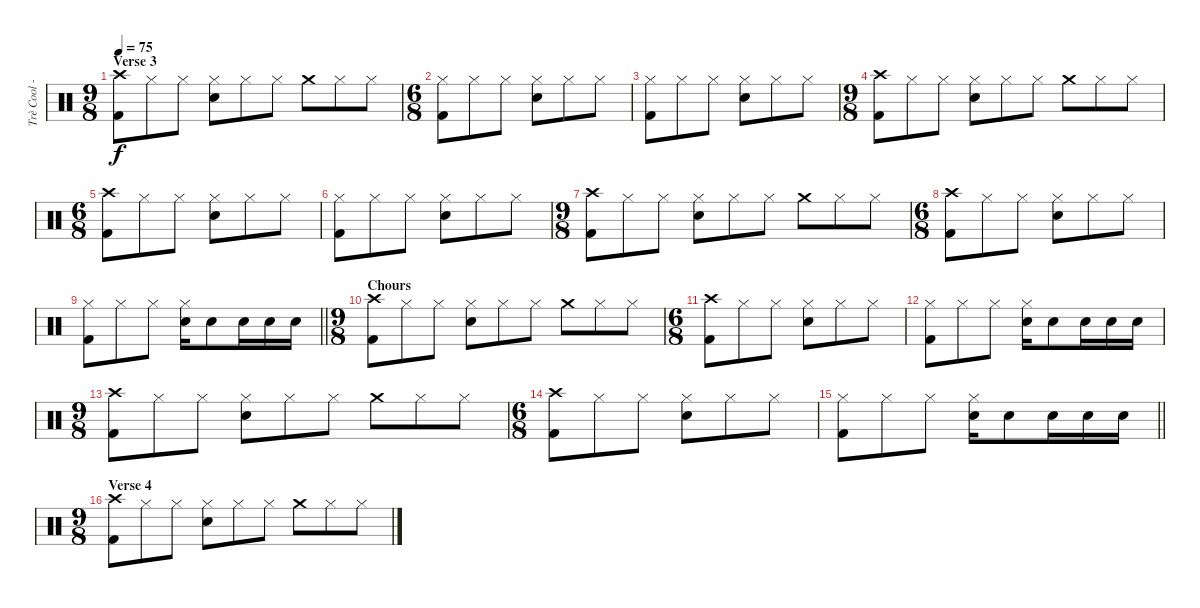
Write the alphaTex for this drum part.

\track ("Trè Cool - Drums" "Trè Cool -") {instrument percussion}
\staff {score}
\articulation defaults
\ts (9 8)
\section ("" "Verse 3")
\tempo 75
\clef neutral
\ks c
("Crash high (hit)" "Kick (hit) 2").8{dy f} "Hi-Hat (closed)".8 "Hi-Hat (closed)".8 ("Hi-Hat (closed)" "Electric Snare (hit)").8 "Hi-Hat (closed)".8 "Hi-Hat (closed)".8 "Crash medium (hit)".8 "Hi-Hat (closed)".8 "Hi-Hat (closed)".8 |
\ts (6 8)
("Hi-Hat (closed)" "Kick (hit) 2").8 "Hi-Hat (closed)".8 "Hi-Hat (closed)".8 ("Hi-Hat (closed)" "Electric Snare (hit)").8 "Hi-Hat (closed)".8 "Hi-Hat (closed)".8 |
("Hi-Hat (closed)" "Kick (hit) 2").8 "Hi-Hat (closed)".8 "Hi-Hat (closed)".8 ("Hi-Hat (closed)" "Electric Snare (hit)").8 "Hi-Hat (closed)".8 "Hi-Hat (closed)".8 |
\ts (9 8)
("Crash high (hit)" "Kick (hit) 2").8 "Hi-Hat (closed)".8 "Hi-Hat (closed)".8 ("Hi-Hat (closed)" "Electric Snare (hit)").8 "Hi-Hat (closed)".8 "Hi-Hat (closed)".8 "Crash medium (hit)".8 "Hi-Hat (closed)".8 "Hi-Hat (closed)".8 |
\ts (6 8)
("Crash high (hit)" "Kick (hit) 2").8 "Hi-Hat (closed)".8 "Hi-Hat (closed)".8 ("Hi-Hat (closed)" "Electric Snare (hit)").8 "Hi-Hat (closed)".8 "Hi-Hat (closed)".8 |
("Hi-Hat (closed)" "Kick (hit) 2").8 "Hi-Hat (closed)".8 "Hi-Hat (closed)".8 ("Hi-Hat (closed)" "Electric Snare (hit)").8 "Hi-Hat (closed)".8 "Hi-Hat (closed)".8 |
\ts (9 8)
("Crash high (hit)" "Kick (hit) 2").8 "Hi-Hat (closed)".8 "Hi-Hat (closed)".8 ("Hi-Hat (closed)" "Electric Snare (hit)").8 "Hi-Hat (closed)".8 "Hi-Hat (closed)".8 "Crash medium (hit)".8 "Hi-Hat (closed)".8 "Hi-Hat (closed)".8 |
\ts (6 8)
("Crash high (hit)" "Kick (hit) 2").8 "Hi-Hat (closed)".8 "Hi-Hat (closed)".8 ("Hi-Hat (closed)" "Electric Snare (hit)").8 "Hi-Hat (closed)".8 "Hi-Hat (closed)".8 |
\barLineRight lightlight
("Hi-Hat (closed)" "Kick (hit) 2").8 "Hi-Hat (closed)".8 "Hi-Hat (closed)".8 ("Hi-Hat (closed)" "Electric Snare (hit)").16 "Electric Snare (hit)".8 "Electric Snare (hit)".16 "Electric Snare (hit)".16 "Electric Snare (hit)".16 |
\ts (9 8)
\section ("" "Chours")
("Crash high (hit)" "Kick (hit) 2").8 "Hi-Hat (closed)".8 "Hi-Hat (closed)".8 ("Hi-Hat (closed)" "Electric Snare (hit)").8 "Hi-Hat (closed)".8 "Hi-Hat (closed)".8 "Crash medium (hit)".8 "Hi-Hat (closed)".8 "Hi-Hat (closed)".8 |
\ts (6 8)
("Crash high (hit)" "Kick (hit) 2").8 "Hi-Hat (closed)".8 "Hi-Hat (closed)".8 ("Hi-Hat (closed)" "Electric Snare (hit)").8 "Hi-Hat (closed)".8 "Hi-Hat (closed)".8 |
("Hi-Hat (closed)" "Kick (hit) 2").8 "Hi-Hat (closed)".8 "Hi-Hat (closed)".8 ("Hi-Hat (closed)" "Electric Snare (hit)").16 "Electric Snare (hit)".8 "Electric Snare (hit)".16 "Electric Snare (hit)".16 "Electric Snare (hit)".16 |
\ts (9 8)
("Crash high (hit)" "Kick (hit) 2").8 "Hi-Hat (closed)".8 "Hi-Hat (closed)".8 ("Hi-Hat (closed)" "Electric Snare (hit)").8 "Hi-Hat (closed)".8 "Hi-Hat (closed)".8 "Crash medium (hit)".8 "Hi-Hat (closed)".8 "Hi-Hat (closed)".8 |
\ts (6 8)
("Crash high (hit)" "Kick (hit) 2").8 "Hi-Hat (closed)".8 "Hi-Hat (closed)".8 ("Hi-Hat (closed)" "Electric Snare (hit)").8 "Hi-Hat (closed)".8 "Hi-Hat (closed)".8 |
\barLineRight lightlight
("Hi-Hat (closed)" "Kick (hit) 2").8 "Hi-Hat (closed)".8 "Hi-Hat (closed)".8 ("Hi-Hat (closed)" "Electric Snare (hit)").16 "Electric Snare (hit)".8 "Electric Snare (hit)".16 "Electric Snare (hit)".16 "Electric Snare (hit)".16 |
\ts (9 8)
\section ("" "Verse 4")
("Crash high (hit)" "Kick (hit) 2").8{volume 16} "Hi-Hat (closed)".8 "Hi-Hat (closed)".8 ("Hi-Hat (closed)" "Electric Snare (hit)").8 "Hi-Hat (closed)".8 "Hi-Hat (closed)".8 "Crash medium (hit)".8 "Hi-Hat (closed)".8 "Hi-Hat (closed)".8
